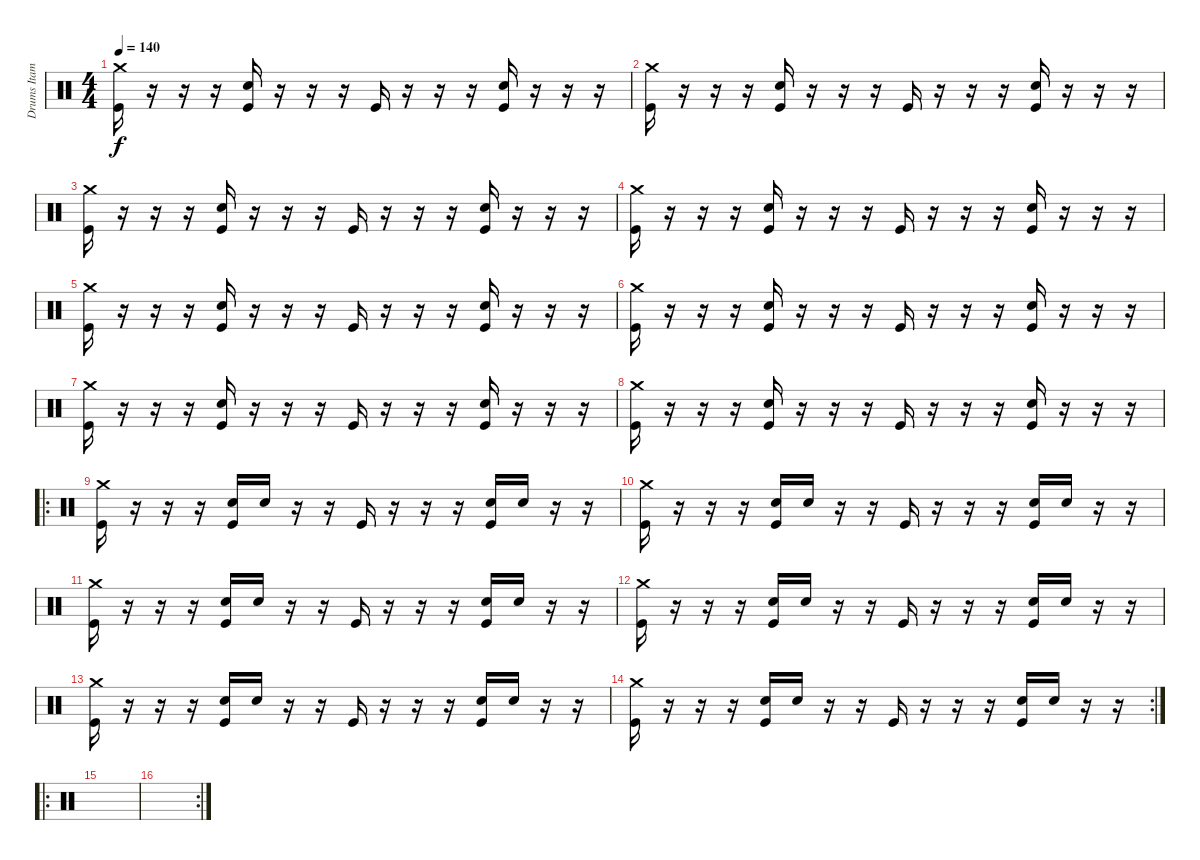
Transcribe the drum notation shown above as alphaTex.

\track ("Drums Itamar" "Drums Itam") {instrument percussion}
\staff {score}
\articulation defaults
\ts (4 4)
\tempo 140
\clef neutral
\ks c
("Kick (hit)" "Crash medium (hit)").16{dy f} r.16 r.16 r.16 ("Kick (hit)" "Snare (hit) 2").16 r.16 r.16 r.16 "Kick (hit)".16 r.16 r.16 r.16 ("Kick (hit)" "Snare (hit) 2").16 r.16 r.16 r.16 |
("Kick (hit)" "Crash medium (hit)").16 r.16 r.16 r.16 ("Kick (hit)" "Snare (hit) 2").16 r.16 r.16 r.16 "Kick (hit)".16 r.16 r.16 r.16 ("Kick (hit)" "Snare (hit) 2").16 r.16 r.16 r.16 |
("Kick (hit)" "Crash medium (hit)").16 r.16 r.16 r.16 ("Kick (hit)" "Snare (hit) 2").16 r.16 r.16 r.16 "Kick (hit)".16 r.16 r.16 r.16 ("Kick (hit)" "Snare (hit) 2").16 r.16 r.16 r.16 |
("Kick (hit)" "Crash medium (hit)").16 r.16 r.16 r.16 ("Kick (hit)" "Snare (hit) 2").16 r.16 r.16 r.16 "Kick (hit)".16 r.16 r.16 r.16 ("Kick (hit)" "Snare (hit) 2").16 r.16 r.16 r.16 |
("Kick (hit)" "Crash medium (hit)").16 r.16 r.16 r.16 ("Kick (hit)" "Snare (hit) 2").16 r.16 r.16 r.16 "Kick (hit)".16 r.16 r.16 r.16 ("Kick (hit)" "Snare (hit) 2").16 r.16 r.16 r.16 |
("Kick (hit)" "Crash medium (hit)").16 r.16 r.16 r.16 ("Kick (hit)" "Snare (hit) 2").16 r.16 r.16 r.16 "Kick (hit)".16 r.16 r.16 r.16 ("Kick (hit)" "Snare (hit) 2").16 r.16 r.16 r.16 |
("Kick (hit)" "Crash medium (hit)").16 r.16 r.16 r.16 ("Kick (hit)" "Snare (hit) 2").16 r.16 r.16 r.16 "Kick (hit)".16 r.16 r.16 r.16 ("Kick (hit)" "Snare (hit) 2").16 r.16 r.16 r.16 |
("Kick (hit)" "Crash medium (hit)").16 r.16 r.16 r.16 ("Kick (hit)" "Snare (hit) 2").16 r.16 r.16 r.16 "Kick (hit)".16 r.16 r.16 r.16 ("Kick (hit)" "Snare (hit) 2").16 r.16 r.16 r.16 |
\ro
("Kick (hit)" "Crash medium (hit)").16 r.16 r.16 r.16 ("Kick (hit)" "Snare (hit) 2").16 "Snare (hit) 2".16 r.16 r.16 "Kick (hit)".16 r.16 r.16 r.16 ("Kick (hit)" "Snare (hit) 2").16 "Snare (hit) 2".16 r.16 r.16 |
("Kick (hit)" "Crash medium (hit)").16 r.16 r.16 r.16 ("Kick (hit)" "Snare (hit) 2").16 "Snare (hit) 2".16 r.16 r.16 "Kick (hit)".16 r.16 r.16 r.16 ("Kick (hit)" "Snare (hit) 2").16 "Snare (hit) 2".16 r.16 r.16 |
("Kick (hit)" "Crash medium (hit)").16 r.16 r.16 r.16 ("Kick (hit)" "Snare (hit) 2").16 "Snare (hit) 2".16 r.16 r.16 "Kick (hit)".16 r.16 r.16 r.16 ("Kick (hit)" "Snare (hit) 2").16 "Snare (hit) 2".16 r.16 r.16 |
("Kick (hit)" "Crash medium (hit)").16 r.16 r.16 r.16 ("Kick (hit)" "Snare (hit) 2").16 "Snare (hit) 2".16 r.16 r.16 "Kick (hit)".16 r.16 r.16 r.16 ("Kick (hit)" "Snare (hit) 2").16 "Snare (hit) 2".16 r.16 r.16 |
("Kick (hit)" "Crash medium (hit)").16 r.16 r.16 r.16 ("Kick (hit)" "Snare (hit) 2").16 "Snare (hit) 2".16 r.16 r.16 "Kick (hit)".16 r.16 r.16 r.16 ("Kick (hit)" "Snare (hit) 2").16 "Snare (hit) 2".16 r.16 r.16 |
\rc 2
("Kick (hit)" "Crash medium (hit)").16 r.16 r.16 r.16 ("Kick (hit)" "Snare (hit) 2").16 "Snare (hit) 2".16 r.16 r.16 "Kick (hit)".16 r.16 r.16 r.16 ("Kick (hit)" "Snare (hit) 2").16 "Snare (hit) 2".16 r.16 r.16 |
\ro
|
\rc 2
